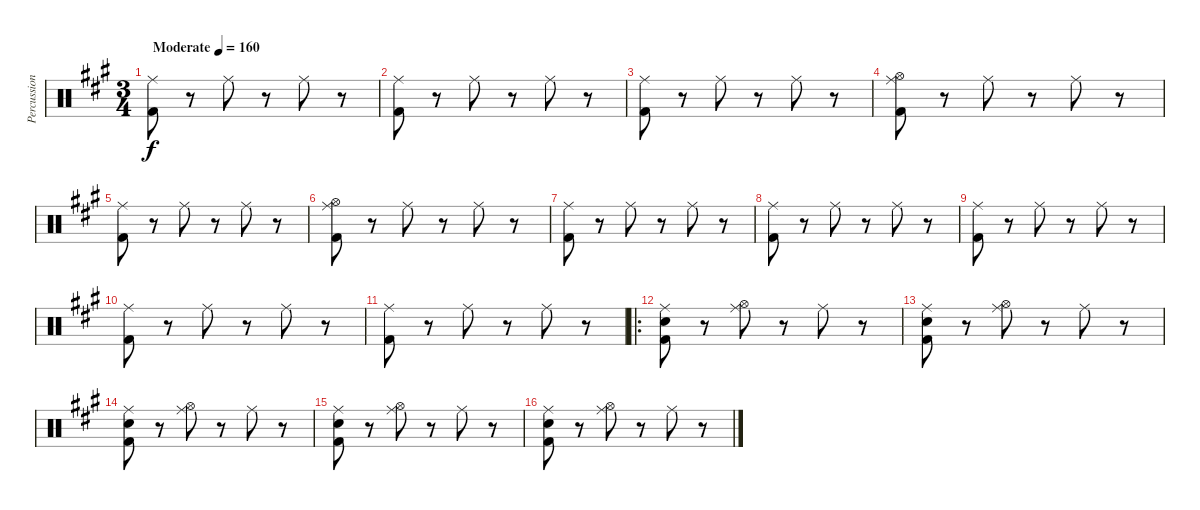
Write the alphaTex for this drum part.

\track ("Percussioni" "Percussion") {instrument percussion}
\staff {score}
\articulation defaults
\ts (3 4)
\tempo (160 "Moderate")
\clef neutral
\ks a
("Ride (middle)" "Kick (hit) 2").8{dy f} r.8 "Ride (middle)".8 r.8 "Ride (middle)".8 r.8 |
("Ride (middle)" "Kick (hit) 2").8 r.8 "Ride (middle)".8 r.8 "Ride (middle)".8 r.8 |
("Ride (middle)" "Kick (hit) 2").8 r.8 "Ride (middle)".8 r.8 "Ride (middle)".8 r.8 |
("Hi-Hat (open)" "Ride (middle)" "Kick (hit) 2").8 r.8 "Ride (middle)".8 r.8 "Ride (middle)".8 r.8 |
("Ride (middle)" "Kick (hit) 2").8 r.8 "Ride (middle)".8 r.8 "Ride (middle)".8 r.8 |
("Hi-Hat (open)" "Ride (middle)" "Kick (hit) 2").8 r.8 "Ride (middle)".8 r.8 "Ride (middle)".8 r.8 |
("Ride (middle)" "Kick (hit) 2").8 r.8 "Ride (middle)".8 r.8 "Ride (middle)".8 r.8 |
("Ride (middle)" "Kick (hit) 2").8 r.8 "Ride (middle)".8 r.8 "Ride (middle)".8 r.8 |
("Ride (middle)" "Kick (hit) 2").8 r.8 "Ride (middle)".8 r.8 "Ride (middle)".8 r.8 |
("Ride (middle)" "Kick (hit) 2").8 r.8 "Ride (middle)".8 r.8 "Ride (middle)".8 r.8 |
("Ride (middle)" "Kick (hit) 2").8 r.8 "Ride (middle)".8 r.8 "Ride (middle)".8 r.8 |
\ro
("Electric Snare (hit)" "Ride (middle)" "Kick (hit) 2").8 r.8 ("Hi-Hat (open)" "Ride (middle)").8 r.8 "Ride (middle)".8 r.8 |
("Electric Snare (hit)" "Ride (middle)" "Kick (hit) 2").8 r.8 ("Hi-Hat (open)" "Ride (middle)").8 r.8 "Ride (middle)".8 r.8 |
("Electric Snare (hit)" "Ride (middle)" "Kick (hit) 2").8 r.8 ("Hi-Hat (open)" "Ride (middle)").8 r.8 "Ride (middle)".8 r.8 |
("Electric Snare (hit)" "Ride (middle)" "Kick (hit) 2").8 r.8 ("Hi-Hat (open)" "Ride (middle)").8 r.8 "Ride (middle)".8 r.8 |
("Electric Snare (hit)" "Ride (middle)" "Kick (hit) 2").8 r.8 ("Hi-Hat (open)" "Ride (middle)").8 r.8 "Ride (middle)".8 r.8
